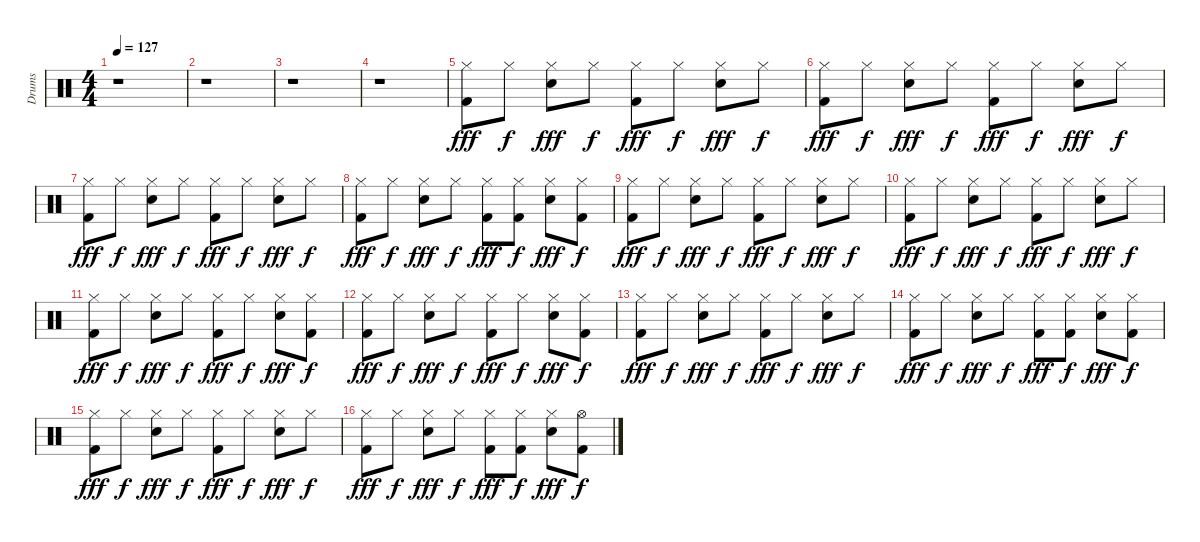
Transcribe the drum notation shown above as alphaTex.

\track ("Drums" "Drums") {instrument percussion}
\staff {score}
\articulation defaults
\ts (4 4)
\tempo 127
\clef neutral
\ks c
r.1{dy fff} |
r.1 |
r.1 |
r.1 |
("Hi-Hat (closed)" "Kick (hit) 2").8 "Hi-Hat (closed)".8{dy f} ("Hi-Hat (closed)" "Snare (hit) 2").8{dy fff} "Hi-Hat (closed)".8{dy f} ("Hi-Hat (closed)" "Kick (hit) 2").8{dy fff} "Hi-Hat (closed)".8{dy f} ("Hi-Hat (closed)" "Snare (hit) 2").8{dy fff} "Hi-Hat (closed)".8{dy f} |
("Hi-Hat (closed)" "Kick (hit) 2").8{dy fff} "Hi-Hat (closed)".8{dy f} ("Hi-Hat (closed)" "Snare (hit) 2").8{dy fff} "Hi-Hat (closed)".8{dy f} ("Hi-Hat (closed)" "Kick (hit) 2").8{dy fff} "Hi-Hat (closed)".8{dy f} ("Hi-Hat (closed)" "Snare (hit) 2").8{dy fff} "Hi-Hat (closed)".8{dy f} |
("Hi-Hat (closed)" "Kick (hit) 2").8{dy fff} "Hi-Hat (closed)".8{dy f} ("Hi-Hat (closed)" "Snare (hit) 2").8{dy fff} "Hi-Hat (closed)".8{dy f} ("Hi-Hat (closed)" "Kick (hit) 2").8{dy fff} "Hi-Hat (closed)".8{dy f} ("Hi-Hat (closed)" "Snare (hit) 2").8{dy fff} "Hi-Hat (closed)".8{dy f} |
("Hi-Hat (closed)" "Kick (hit) 2").8{dy fff} "Hi-Hat (closed)".8{dy f} ("Hi-Hat (closed)" "Snare (hit) 2").8{dy fff} "Hi-Hat (closed)".8{dy f} ("Hi-Hat (closed)" "Kick (hit) 2").8{dy fff} ("Hi-Hat (closed)" "Kick (hit) 2").8{dy f} ("Hi-Hat (closed)" "Snare (hit) 2").8{dy fff} ("Hi-Hat (closed)" "Kick (hit) 2").8{dy f} |
("Hi-Hat (closed)" "Kick (hit) 2").8{dy fff} "Hi-Hat (closed)".8{dy f} ("Hi-Hat (closed)" "Snare (hit) 2").8{dy fff} "Hi-Hat (closed)".8{dy f} ("Hi-Hat (closed)" "Kick (hit) 2").8{dy fff} "Hi-Hat (closed)".8{dy f} ("Hi-Hat (closed)" "Snare (hit) 2").8{dy fff} "Hi-Hat (closed)".8{dy f} |
("Hi-Hat (closed)" "Kick (hit) 2").8{dy fff} "Hi-Hat (closed)".8{dy f} ("Hi-Hat (closed)" "Snare (hit) 2").8{dy fff} "Hi-Hat (closed)".8{dy f} ("Hi-Hat (closed)" "Kick (hit) 2").8{dy fff} "Hi-Hat (closed)".8{dy f} ("Hi-Hat (closed)" "Snare (hit) 2").8{dy fff} "Hi-Hat (closed)".8{dy f} |
("Hi-Hat (closed)" "Kick (hit) 2").8{dy fff} "Hi-Hat (closed)".8{dy f} ("Hi-Hat (closed)" "Snare (hit) 2").8{dy fff} "Hi-Hat (closed)".8{dy f} ("Hi-Hat (closed)" "Kick (hit) 2").8{dy fff} "Hi-Hat (closed)".8{dy f} ("Hi-Hat (closed)" "Snare (hit) 2").8{dy fff} ("Hi-Hat (closed)" "Kick (hit) 2").8{dy f} |
("Hi-Hat (closed)" "Kick (hit) 2").8{dy fff} "Hi-Hat (closed)".8{dy f} ("Hi-Hat (closed)" "Snare (hit) 2").8{dy fff} "Hi-Hat (closed)".8{dy f} ("Hi-Hat (closed)" "Kick (hit) 2").8{dy fff} "Hi-Hat (closed)".8{dy f} ("Hi-Hat (closed)" "Snare (hit) 2").8{dy fff} ("Hi-Hat (closed)" "Kick (hit) 2").8{dy f} |
("Hi-Hat (closed)" "Kick (hit) 2").8{dy fff} "Hi-Hat (closed)".8{dy f} ("Hi-Hat (closed)" "Snare (hit) 2").8{dy fff} "Hi-Hat (closed)".8{dy f} ("Hi-Hat (closed)" "Kick (hit) 2").8{dy fff} "Hi-Hat (closed)".8{dy f} ("Hi-Hat (closed)" "Snare (hit) 2").8{dy fff} "Hi-Hat (closed)".8{dy f} |
("Hi-Hat (closed)" "Kick (hit) 2").8{dy fff} "Hi-Hat (closed)".8{dy f} ("Hi-Hat (closed)" "Snare (hit) 2").8{dy fff} "Hi-Hat (closed)".8{dy f} ("Hi-Hat (closed)" "Kick (hit) 2").8{dy fff} ("Hi-Hat (closed)" "Kick (hit) 2").8{dy f} ("Hi-Hat (closed)" "Snare (hit) 2").8{dy fff} ("Hi-Hat (closed)" "Kick (hit) 2").8{dy f} |
("Hi-Hat (closed)" "Kick (hit) 2").8{dy fff} "Hi-Hat (closed)".8{dy f} ("Hi-Hat (closed)" "Snare (hit) 2").8{dy fff} "Hi-Hat (closed)".8{dy f} ("Hi-Hat (closed)" "Kick (hit) 2").8{dy fff} "Hi-Hat (closed)".8{dy f} ("Hi-Hat (closed)" "Snare (hit) 2").8{dy fff} "Hi-Hat (closed)".8{dy f} |
("Hi-Hat (closed)" "Kick (hit) 2").8{dy fff} "Hi-Hat (closed)".8{dy f} ("Hi-Hat (closed)" "Snare (hit) 2").8{dy fff} "Hi-Hat (closed)".8{dy f} ("Hi-Hat (closed)" "Kick (hit) 2").8{dy fff} ("Hi-Hat (closed)" "Kick (hit) 2").8{dy f} ("Hi-Hat (closed)" "Snare (hit) 2").8{dy fff} ("Hi-Hat (open)" "Kick (hit) 2").8{dy f}
